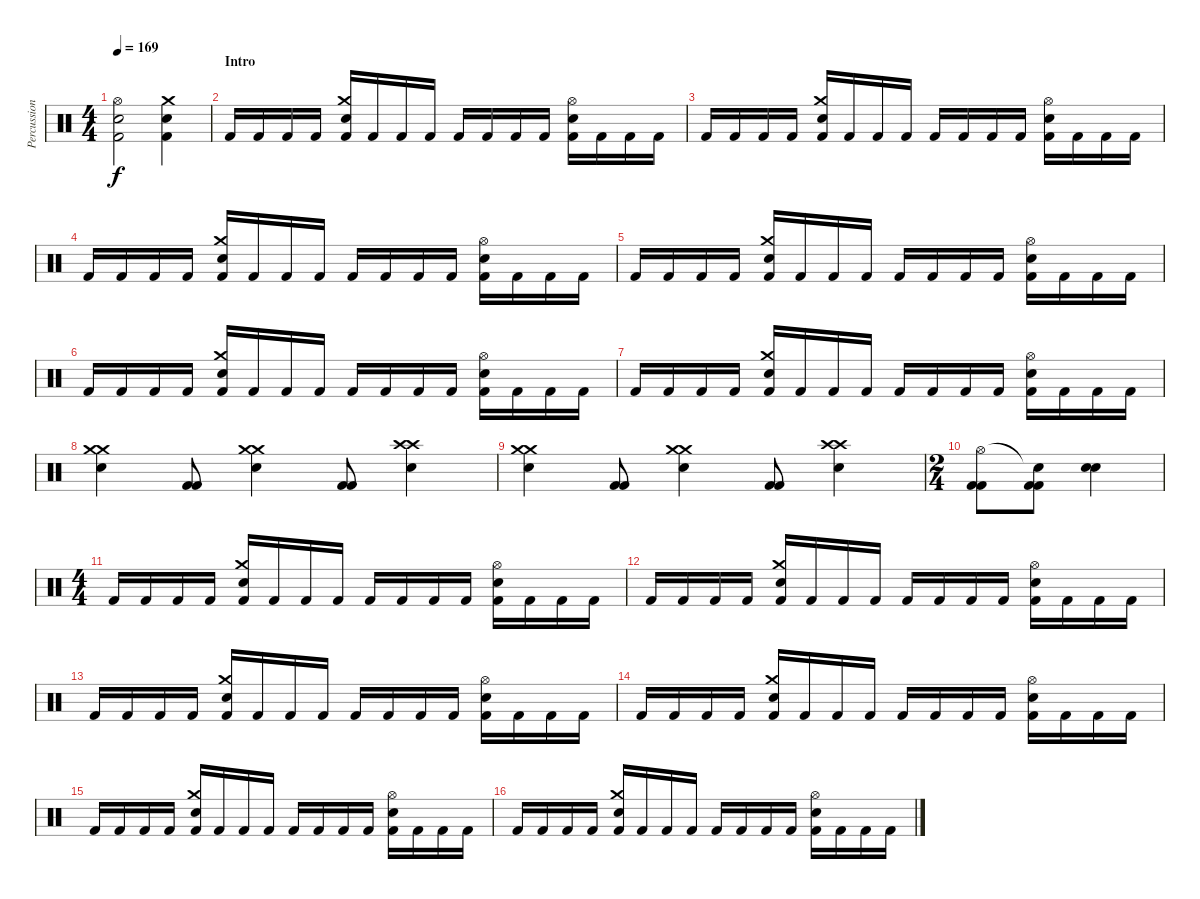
\track ("Percussion" "Percussion") {instrument percussion}
\staff {score}
\articulation defaults
\ts (4 4)
\tempo 169
\clef neutral
\ks c
("Hi-Hat (open)" "Snare (hit) 2" "Kick (hit) 2").2{dy f} ("Crash medium (hit)" "Snare (hit) 2" "Kick (hit) 2").4 |
\section ("" "Intro")
"Kick (hit) 2".16 "Kick (hit) 2".16 "Kick (hit) 2".16 "Kick (hit) 2".16 ("Crash medium (hit)" "Electric Snare (hit)" "Kick (hit) 2").16 "Kick (hit) 2".16 "Kick (hit) 2".16 "Kick (hit) 2".16 "Kick (hit) 2".16 "Kick (hit) 2".16 "Kick (hit) 2".16 "Kick (hit) 2".16 ("Hi-Hat (open)" "Snare (hit) 2" "Kick (hit) 2").16 "Kick (hit) 2".16 "Kick (hit) 2".16 "Kick (hit) 2".16 |
"Kick (hit) 2".16 "Kick (hit) 2".16 "Kick (hit) 2".16 "Kick (hit) 2".16 ("Crash medium (hit)" "Electric Snare (hit)" "Kick (hit) 2").16 "Kick (hit) 2".16 "Kick (hit) 2".16 "Kick (hit) 2".16 "Kick (hit) 2".16 "Kick (hit) 2".16 "Kick (hit) 2".16 "Kick (hit) 2".16 ("Hi-Hat (open)" "Snare (hit) 2" "Kick (hit) 2").16 "Kick (hit) 2".16 "Kick (hit) 2".16 "Kick (hit) 2".16 |
"Kick (hit) 2".16 "Kick (hit) 2".16 "Kick (hit) 2".16 "Kick (hit) 2".16 ("Crash medium (hit)" "Electric Snare (hit)" "Kick (hit) 2").16 "Kick (hit) 2".16 "Kick (hit) 2".16 "Kick (hit) 2".16 "Kick (hit) 2".16 "Kick (hit) 2".16 "Kick (hit) 2".16 "Kick (hit) 2".16 ("Hi-Hat (open)" "Snare (hit) 2" "Kick (hit) 2").16 "Kick (hit) 2".16 "Kick (hit) 2".16 "Kick (hit) 2".16 |
"Kick (hit) 2".16 "Kick (hit) 2".16 "Kick (hit) 2".16 "Kick (hit) 2".16 ("Crash medium (hit)" "Electric Snare (hit)" "Kick (hit) 2").16 "Kick (hit) 2".16 "Kick (hit) 2".16 "Kick (hit) 2".16 "Kick (hit) 2".16 "Kick (hit) 2".16 "Kick (hit) 2".16 "Kick (hit) 2".16 ("Hi-Hat (open)" "Snare (hit) 2" "Kick (hit) 2").16 "Kick (hit) 2".16 "Kick (hit) 2".16 "Kick (hit) 2".16 |
"Kick (hit) 2".16 "Kick (hit) 2".16 "Kick (hit) 2".16 "Kick (hit) 2".16 ("Crash medium (hit)" "Electric Snare (hit)" "Kick (hit) 2").16 "Kick (hit) 2".16 "Kick (hit) 2".16 "Kick (hit) 2".16 "Kick (hit) 2".16 "Kick (hit) 2".16 "Kick (hit) 2".16 "Kick (hit) 2".16 ("Hi-Hat (open)" "Snare (hit) 2" "Kick (hit) 2").16 "Kick (hit) 2".16 "Kick (hit) 2".16 "Kick (hit) 2".16 |
"Kick (hit) 2".16 "Kick (hit) 2".16 "Kick (hit) 2".16 "Kick (hit) 2".16 ("Crash medium (hit)" "Electric Snare (hit)" "Kick (hit) 2").16 "Kick (hit) 2".16 "Kick (hit) 2".16 "Kick (hit) 2".16 "Kick (hit) 2".16 "Kick (hit) 2".16 "Kick (hit) 2".16 "Kick (hit) 2".16 ("Hi-Hat (open)" "Snare (hit) 2" "Kick (hit) 2").16 "Kick (hit) 2".16 "Kick (hit) 2".16 "Kick (hit) 2".16 |
("Crash medium (hit)" "Crash medium (hit)" "Snare (hit) 2").4 ("Kick (hit) 2" "Kick (hit) 2").8 ("Crash medium (hit)" "Crash medium (hit)" "Snare (hit) 2").4 ("Kick (hit) 2" "Kick (hit) 2").8 ("Crash high (hit)" "Crash high (hit)" "Snare (hit) 2").4 |
("Crash medium (hit)" "Crash medium (hit)" "Snare (hit) 2").4 ("Kick (hit) 2" "Kick (hit) 2").8 ("Crash medium (hit)" "Crash medium (hit)" "Snare (hit) 2").4 ("Kick (hit) 2" "Kick (hit) 2").8 ("Crash high (hit)" "Crash high (hit)" "Snare (hit) 2").4 |
\ts (2 4)
("Kick (hit) 2" "Kick (hit) 2" "Hi-Hat (open)").8 ("Kick (hit) 2" "Kick (hit) 2" "Snare (hit)"{t}).8 ("Snare (hit) 2" "Snare (hit) 2").4 |
\ts (4 4)
"Kick (hit) 2".16 "Kick (hit) 2".16 "Kick (hit) 2".16 "Kick (hit) 2".16 ("Crash medium (hit)" "Electric Snare (hit)" "Kick (hit) 2").16 "Kick (hit) 2".16 "Kick (hit) 2".16 "Kick (hit) 2".16 "Kick (hit) 2".16 "Kick (hit) 2".16 "Kick (hit) 2".16 "Kick (hit) 2".16 ("Hi-Hat (open)" "Snare (hit) 2" "Kick (hit) 2").16 "Kick (hit) 2".16 "Kick (hit) 2".16 "Kick (hit) 2".16 |
"Kick (hit) 2".16 "Kick (hit) 2".16 "Kick (hit) 2".16 "Kick (hit) 2".16 ("Crash medium (hit)" "Electric Snare (hit)" "Kick (hit) 2").16 "Kick (hit) 2".16 "Kick (hit) 2".16 "Kick (hit) 2".16 "Kick (hit) 2".16 "Kick (hit) 2".16 "Kick (hit) 2".16 "Kick (hit) 2".16 ("Hi-Hat (open)" "Snare (hit) 2" "Kick (hit) 2").16 "Kick (hit) 2".16 "Kick (hit) 2".16 "Kick (hit) 2".16 |
"Kick (hit) 2".16 "Kick (hit) 2".16 "Kick (hit) 2".16 "Kick (hit) 2".16 ("Crash medium (hit)" "Electric Snare (hit)" "Kick (hit) 2").16 "Kick (hit) 2".16 "Kick (hit) 2".16 "Kick (hit) 2".16 "Kick (hit) 2".16 "Kick (hit) 2".16 "Kick (hit) 2".16 "Kick (hit) 2".16 ("Hi-Hat (open)" "Snare (hit) 2" "Kick (hit) 2").16 "Kick (hit) 2".16 "Kick (hit) 2".16 "Kick (hit) 2".16 |
"Kick (hit) 2".16 "Kick (hit) 2".16 "Kick (hit) 2".16 "Kick (hit) 2".16 ("Crash medium (hit)" "Electric Snare (hit)" "Kick (hit) 2").16 "Kick (hit) 2".16 "Kick (hit) 2".16 "Kick (hit) 2".16 "Kick (hit) 2".16 "Kick (hit) 2".16 "Kick (hit) 2".16 "Kick (hit) 2".16 ("Hi-Hat (open)" "Snare (hit) 2" "Kick (hit) 2").16 "Kick (hit) 2".16 "Kick (hit) 2".16 "Kick (hit) 2".16 |
"Kick (hit) 2".16 "Kick (hit) 2".16 "Kick (hit) 2".16 "Kick (hit) 2".16 ("Crash medium (hit)" "Electric Snare (hit)" "Kick (hit) 2").16 "Kick (hit) 2".16 "Kick (hit) 2".16 "Kick (hit) 2".16 "Kick (hit) 2".16 "Kick (hit) 2".16 "Kick (hit) 2".16 "Kick (hit) 2".16 ("Hi-Hat (open)" "Snare (hit) 2" "Kick (hit) 2").16 "Kick (hit) 2".16 "Kick (hit) 2".16 "Kick (hit) 2".16 |
"Kick (hit) 2".16 "Kick (hit) 2".16 "Kick (hit) 2".16 "Kick (hit) 2".16 ("Crash medium (hit)" "Electric Snare (hit)" "Kick (hit) 2").16 "Kick (hit) 2".16 "Kick (hit) 2".16 "Kick (hit) 2".16 "Kick (hit) 2".16 "Kick (hit) 2".16 "Kick (hit) 2".16 "Kick (hit) 2".16 ("Hi-Hat (open)" "Snare (hit) 2" "Kick (hit) 2").16 "Kick (hit) 2".16 "Kick (hit) 2".16 "Kick (hit) 2".16
